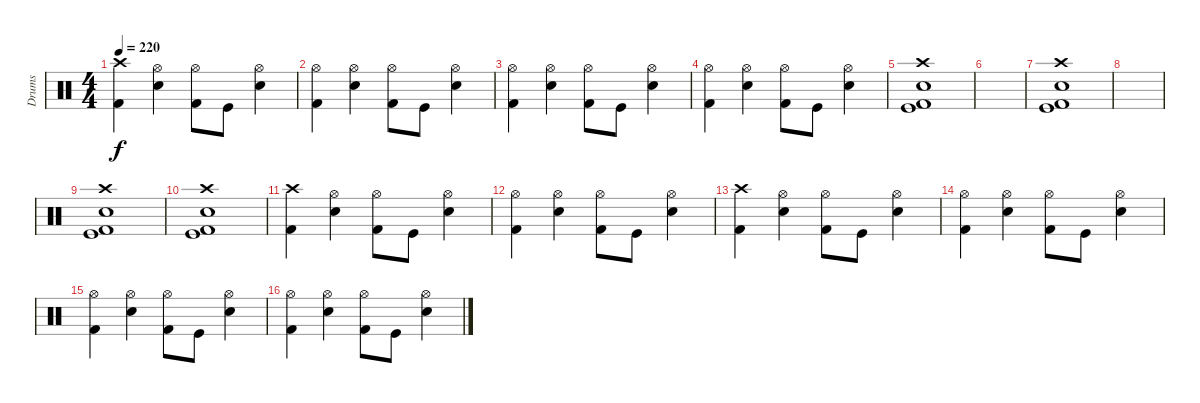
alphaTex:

\track ("Drums" "Drums") {instrument percussion}
\staff {score}
\articulation defaults
\ts (4 4)
\tempo 220
\clef neutral
\ks c
("Crash high (hit)" "Kick (hit) 2").4{dy f} ("Hi-Hat (open)" "Electric Snare (hit)").4 ("Hi-Hat (open)" "Kick (hit) 2").8 "Kick (hit)".8 ("Hi-Hat (open)" "Electric Snare (hit)").4 |
("Hi-Hat (open)" "Kick (hit) 2").4 ("Hi-Hat (open)" "Electric Snare (hit)").4 ("Hi-Hat (open)" "Kick (hit) 2").8 "Kick (hit)".8 ("Hi-Hat (open)" "Electric Snare (hit)").4 |
("Hi-Hat (open)" "Kick (hit) 2").4 ("Hi-Hat (open)" "Electric Snare (hit)").4 ("Hi-Hat (open)" "Kick (hit) 2").8 "Kick (hit)".8 ("Hi-Hat (open)" "Electric Snare (hit)").4 |
("Hi-Hat (open)" "Kick (hit) 2").4 ("Hi-Hat (open)" "Electric Snare (hit)").4 ("Hi-Hat (open)" "Kick (hit) 2").8 "Kick (hit)".8 ("Hi-Hat (open)" "Electric Snare (hit)").4 |
("Crash high (hit)" "Electric Snare (hit)" "Kick (hit)" "Kick (hit) 2").1 |
|
("Crash high (hit)" "Electric Snare (hit)" "Kick (hit)" "Kick (hit) 2").1 |
|
("Crash high (hit)" "Electric Snare (hit)" "Kick (hit)" "Kick (hit) 2").1 |
("Crash high (hit)" "Electric Snare (hit)" "Kick (hit)" "Kick (hit) 2").1 |
("Crash high (hit)" "Kick (hit) 2").4 ("Hi-Hat (open)" "Electric Snare (hit)").4 ("Hi-Hat (open)" "Kick (hit) 2").8 "Kick (hit)".8 ("Hi-Hat (open)" "Electric Snare (hit)").4 |
("Hi-Hat (open)" "Kick (hit) 2").4 ("Hi-Hat (open)" "Electric Snare (hit)").4 ("Hi-Hat (open)" "Kick (hit) 2").8 "Kick (hit)".8 ("Hi-Hat (open)" "Electric Snare (hit)").4 |
("Crash high (hit)" "Kick (hit) 2").4 ("Hi-Hat (open)" "Electric Snare (hit)").4 ("Hi-Hat (open)" "Kick (hit) 2").8 "Kick (hit)".8 ("Hi-Hat (open)" "Electric Snare (hit)").4 |
("Hi-Hat (open)" "Kick (hit) 2").4 ("Hi-Hat (open)" "Electric Snare (hit)").4 ("Hi-Hat (open)" "Kick (hit) 2").8 "Kick (hit)".8 ("Hi-Hat (open)" "Electric Snare (hit)").4 |
("Hi-Hat (open)" "Kick (hit) 2").4 ("Hi-Hat (open)" "Electric Snare (hit)").4 ("Hi-Hat (open)" "Kick (hit) 2").8 "Kick (hit)".8 ("Hi-Hat (open)" "Electric Snare (hit)").4 |
("Hi-Hat (open)" "Kick (hit) 2").4 ("Hi-Hat (open)" "Electric Snare (hit)").4 ("Hi-Hat (open)" "Kick (hit) 2").8 "Kick (hit)".8 ("Hi-Hat (open)" "Electric Snare (hit)").4
